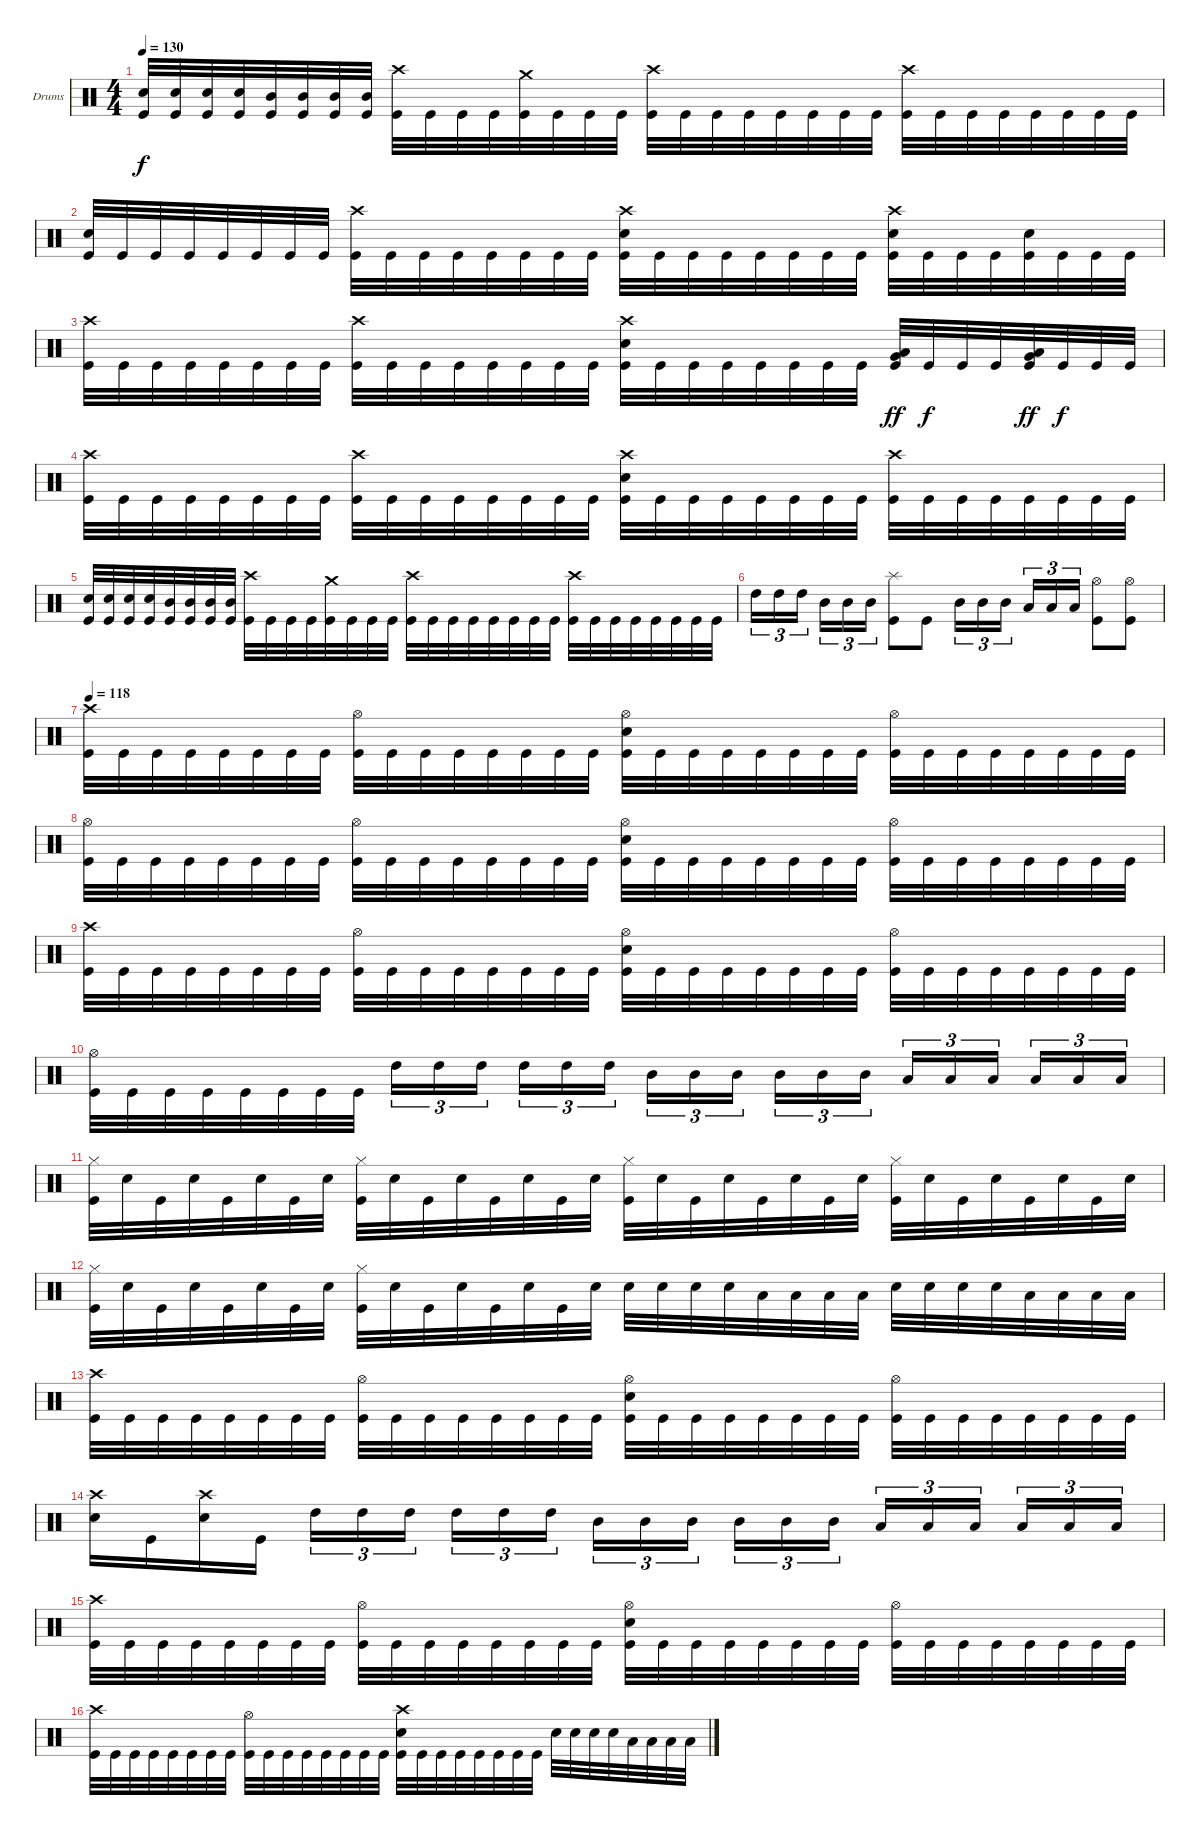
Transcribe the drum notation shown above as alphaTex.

\defaultSystemsLayout 4
\bracketExtendMode groupsimilarinstruments
\firstSystemTrackNameOrientation horizontal
\otherSystemsTrackNameOrientation horizontal
\track ("Trey Williams" "Drums") {instrument percussion}
\staff {score}
\articulation defaults
\ts (4 4)
\tempo 130
\clef neutral
\ks c
("Kick (hit)" "Snare (hit) 2").32{dy f} ("Kick (hit)" "Snare (hit) 2").32 ("Kick (hit)" "Snare (hit) 2").32 ("Kick (hit)" "Snare (hit) 2").32 ("Kick (hit)" "Mid Tom (hit)").32 ("Kick (hit)" "Mid Tom (hit)").32 ("Kick (hit)" "Mid Tom (hit)").32 ("Kick (hit)" "Mid Tom (hit)").32 ("Kick (hit)" "Crash high (hit)").32 "Kick (hit)".32 "Kick (hit)".32 "Kick (hit)".32 ("Kick (hit)" "Crash medium (hit)").32 "Kick (hit)".32 "Kick (hit)".32 "Kick (hit)".32 ("Kick (hit)" "Crash high (hit)").32 "Kick (hit)".32 "Kick (hit)".32 "Kick (hit)".32 "Kick (hit)".32 "Kick (hit)".32 "Kick (hit)".32 "Kick (hit)".32 ("Kick (hit)" "Crash high (hit)").32 "Kick (hit)".32 "Kick (hit)".32 "Kick (hit)".32 "Kick (hit)".32 "Kick (hit)".32 "Kick (hit)".32 "Kick (hit)".32 |
("Kick (hit)" "Snare (hit) 2").32 "Kick (hit)".32 "Kick (hit)".32 "Kick (hit)".32 "Kick (hit)".32 "Kick (hit)".32 "Kick (hit)".32 "Kick (hit)".32 ("Kick (hit)" "Crash high (hit)").32 "Kick (hit)".32 "Kick (hit)".32 "Kick (hit)".32 "Kick (hit)".32 "Kick (hit)".32 "Kick (hit)".32 "Kick (hit)".32 ("Kick (hit)" "Snare (hit) 2" "Crash high (hit)").32 "Kick (hit)".32 "Kick (hit)".32 "Kick (hit)".32 "Kick (hit)".32 "Kick (hit)".32 "Kick (hit)".32 "Kick (hit)".32 ("Kick (hit)" "Crash high (hit)" "Snare (hit) 2").32 "Kick (hit)".32 "Kick (hit)".32 "Kick (hit)".32 ("Kick (hit)" "Snare (hit) 2").32 "Kick (hit)".32 "Kick (hit)".32 "Kick (hit)".32 |
("Kick (hit)" "Crash high (hit)").32 "Kick (hit)".32 "Kick (hit)".32 "Kick (hit)".32 "Kick (hit)".32 "Kick (hit)".32 "Kick (hit)".32 "Kick (hit)".32 ("Kick (hit)" "Crash high (hit)").32 "Kick (hit)".32 "Kick (hit)".32 "Kick (hit)".32 "Kick (hit)".32 "Kick (hit)".32 "Kick (hit)".32 "Kick (hit)".32 ("Kick (hit)" "Snare (hit) 2" "Crash high (hit)").32 "Kick (hit)".32 "Kick (hit)".32 "Kick (hit)".32 "Kick (hit)".32 "Kick (hit)".32 "Kick (hit)".32 "Kick (hit)".32 ("Kick (hit)" "Very Low Tom (hit)" "Low Tom (hit)").32{dy ff} "Kick (hit)".32{dy f} "Kick (hit)".32 "Kick (hit)".32 ("Kick (hit)" "Very Low Tom (hit)" "Low Tom (hit)").32{dy ff} "Kick (hit)".32{dy f} "Kick (hit)".32 "Kick (hit)".32 |
("Kick (hit)" "Crash high (hit)").32 "Kick (hit)".32 "Kick (hit)".32 "Kick (hit)".32 "Kick (hit)".32 "Kick (hit)".32 "Kick (hit)".32 "Kick (hit)".32 ("Kick (hit)" "Crash high (hit)").32 "Kick (hit)".32 "Kick (hit)".32 "Kick (hit)".32 "Kick (hit)".32 "Kick (hit)".32 "Kick (hit)".32 "Kick (hit)".32 ("Kick (hit)" "Crash high (hit)" "Snare (hit) 2").32 "Kick (hit)".32 "Kick (hit)".32 "Kick (hit)".32 "Kick (hit)".32 "Kick (hit)".32 "Kick (hit)".32 "Kick (hit)".32 ("Kick (hit)" "Crash high (hit)").32 "Kick (hit)".32 "Kick (hit)".32 "Kick (hit)".32 "Kick (hit)".32 "Kick (hit)".32 "Kick (hit)".32 "Kick (hit)".32 |
("Kick (hit)" "Snare (hit) 2").32 ("Kick (hit)" "Snare (hit) 2").32 ("Kick (hit)" "Snare (hit) 2").32 ("Kick (hit)" "Snare (hit) 2").32 ("Kick (hit)" "Mid Tom (hit)").32 ("Kick (hit)" "Mid Tom (hit)").32 ("Kick (hit)" "Mid Tom (hit)").32 ("Kick (hit)" "Mid Tom (hit)").32 ("Kick (hit)" "Crash high (hit)").32 "Kick (hit)".32 "Kick (hit)".32 "Kick (hit)".32 ("Kick (hit)" "Crash medium (hit)").32 "Kick (hit)".32 "Kick (hit)".32 "Kick (hit)".32 ("Kick (hit)" "Crash high (hit)").32 "Kick (hit)".32 "Kick (hit)".32 "Kick (hit)".32 "Kick (hit)".32 "Kick (hit)".32 "Kick (hit)".32 "Kick (hit)".32 ("Kick (hit)" "Crash high (hit)").32 "Kick (hit)".32 "Kick (hit)".32 "Kick (hit)".32 "Kick (hit)".32 "Kick (hit)".32 "Kick (hit)".32 "Kick (hit)".32 |
"High Tom (hit)".16{tu (3 2)} "High Tom (hit)".16{tu (3 2)} "High Tom (hit)".16{tu (3 2)} "Mid Tom (hit)".16{tu (3 2)} "Mid Tom (hit)".16{tu (3 2)} "Mid Tom (hit)".16{tu (3 2)} ("Kick (hit)" "Splash (hit)").8 "Kick (hit)".8 "Mid Tom (hit)".16{tu (3 2)} "Mid Tom (hit)".16{tu (3 2)} "Mid Tom (hit)".16{tu (3 2)} "Low Tom (hit)".16{tu (3 2)} "Low Tom (hit)".16{tu (3 2)} "Low Tom (hit)".16{tu (3 2)} ("Kick (hit)" "Hi-Hat (open)").8 ("Kick (hit)" "Hi-Hat (open)").8 |
\tempo 118
("Kick (hit)" "Crash high (hit)").32 "Kick (hit)".32 "Kick (hit)".32 "Kick (hit)".32 "Kick (hit)".32 "Kick (hit)".32 "Kick (hit)".32 "Kick (hit)".32 ("Kick (hit)" "Hi-Hat (open)").32 "Kick (hit)".32 "Kick (hit)".32 "Kick (hit)".32 "Kick (hit)".32 "Kick (hit)".32 "Kick (hit)".32 "Kick (hit)".32 ("Kick (hit)" "Hi-Hat (open)" "Snare (hit) 2").32 "Kick (hit)".32 "Kick (hit)".32 "Kick (hit)".32 "Kick (hit)".32 "Kick (hit)".32 "Kick (hit)".32 "Kick (hit)".32 ("Kick (hit)" "Hi-Hat (open)").32 "Kick (hit)".32 "Kick (hit)".32 "Kick (hit)".32 "Kick (hit)".32 "Kick (hit)".32 "Kick (hit)".32 "Kick (hit)".32 |
("Kick (hit)" "Hi-Hat (open)").32 "Kick (hit)".32 "Kick (hit)".32 "Kick (hit)".32 "Kick (hit)".32 "Kick (hit)".32 "Kick (hit)".32 "Kick (hit)".32 ("Kick (hit)" "Hi-Hat (open)").32 "Kick (hit)".32 "Kick (hit)".32 "Kick (hit)".32 "Kick (hit)".32 "Kick (hit)".32 "Kick (hit)".32 "Kick (hit)".32 ("Kick (hit)" "Hi-Hat (open)" "Snare (hit) 2").32 "Kick (hit)".32 "Kick (hit)".32 "Kick (hit)".32 "Kick (hit)".32 "Kick (hit)".32 "Kick (hit)".32 "Kick (hit)".32 ("Kick (hit)" "Hi-Hat (open)").32 "Kick (hit)".32 "Kick (hit)".32 "Kick (hit)".32 "Kick (hit)".32 "Kick (hit)".32 "Kick (hit)".32 "Kick (hit)".32 |
("Kick (hit)" "Crash high (hit)").32 "Kick (hit)".32 "Kick (hit)".32 "Kick (hit)".32 "Kick (hit)".32 "Kick (hit)".32 "Kick (hit)".32 "Kick (hit)".32 ("Kick (hit)" "Hi-Hat (open)").32 "Kick (hit)".32 "Kick (hit)".32 "Kick (hit)".32 "Kick (hit)".32 "Kick (hit)".32 "Kick (hit)".32 "Kick (hit)".32 ("Kick (hit)" "Hi-Hat (open)" "Snare (hit) 2").32 "Kick (hit)".32 "Kick (hit)".32 "Kick (hit)".32 "Kick (hit)".32 "Kick (hit)".32 "Kick (hit)".32 "Kick (hit)".32 ("Kick (hit)" "Hi-Hat (open)").32 "Kick (hit)".32 "Kick (hit)".32 "Kick (hit)".32 "Kick (hit)".32 "Kick (hit)".32 "Kick (hit)".32 "Kick (hit)".32 |
("Kick (hit)" "Hi-Hat (open)").32 "Kick (hit)".32 "Kick (hit)".32 "Kick (hit)".32 "Kick (hit)".32 "Kick (hit)".32 "Kick (hit)".32 "Kick (hit)".32 "High Tom (hit)".16{tu (3 2)} "High Tom (hit)".16{tu (3 2)} "High Tom (hit)".16{tu (3 2)} "High Tom (hit)".16{tu (3 2)} "High Tom (hit)".16{tu (3 2)} "High Tom (hit)".16{tu (3 2)} "Mid Tom (hit)".16{tu (3 2)} "Mid Tom (hit)".16{tu (3 2)} "Mid Tom (hit)".16{tu (3 2)} "Mid Tom (hit)".16{tu (3 2)} "Mid Tom (hit)".16{tu (3 2)} "Mid Tom (hit)".16{tu (3 2)} "Low Tom (hit)".16{tu (3 2)} "Low Tom (hit)".16{tu (3 2)} "Low Tom (hit)".16{tu (3 2)} "Low Tom (hit)".16{tu (3 2)} "Low Tom (hit)".16{tu (3 2)} "Low Tom (hit)".16{tu (3 2)} |
("Kick (hit)" "Hi-Hat (closed)").32 "Snare (hit) 2".32 "Kick (hit)".32 "Snare (hit) 2".32 "Kick (hit)".32 "Snare (hit) 2".32 "Kick (hit)".32 "Snare (hit) 2".32 ("Kick (hit)" "Hi-Hat (closed)").32 "Snare (hit) 2".32 "Kick (hit)".32 "Snare (hit) 2".32 "Kick (hit)".32 "Snare (hit) 2".32 "Kick (hit)".32 "Snare (hit) 2".32 ("Kick (hit)" "Hi-Hat (closed)").32 "Snare (hit) 2".32 "Kick (hit)".32 "Snare (hit) 2".32 "Kick (hit)".32 "Snare (hit) 2".32 "Kick (hit)".32 "Snare (hit) 2".32 ("Kick (hit)" "Hi-Hat (closed)").32 "Snare (hit) 2".32 "Kick (hit)".32 "Snare (hit) 2".32 "Kick (hit)".32 "Snare (hit) 2".32 "Kick (hit)".32 "Snare (hit) 2".32 |
("Kick (hit)" "Hi-Hat (closed)").32 "Snare (hit) 2".32 "Kick (hit)".32 "Snare (hit) 2".32 "Kick (hit)".32 "Snare (hit) 2".32 "Kick (hit)".32 "Snare (hit) 2".32 ("Kick (hit)" "Hi-Hat (closed)").32 "Snare (hit) 2".32 "Kick (hit)".32 "Snare (hit) 2".32 "Kick (hit)".32 "Snare (hit) 2".32 "Kick (hit)".32 "Snare (hit) 2".32 "Snare (hit) 2".32 "Snare (hit) 2".32 "Snare (hit) 2".32 "Snare (hit) 2".32 "Low Tom (hit)".32 "Low Tom (hit)".32 "Low Tom (hit)".32 "Low Tom (hit)".32 "Snare (hit) 2".32 "Snare (hit) 2".32 "Snare (hit) 2".32 "Snare (hit) 2".32 "Low Tom (hit)".32 "Low Tom (hit)".32 "Low Tom (hit)".32 "Low Tom (hit)".32 |
("Kick (hit)" "Crash high (hit)").32 "Kick (hit)".32 "Kick (hit)".32 "Kick (hit)".32 "Kick (hit)".32 "Kick (hit)".32 "Kick (hit)".32 "Kick (hit)".32 ("Kick (hit)" "Hi-Hat (open)").32 "Kick (hit)".32 "Kick (hit)".32 "Kick (hit)".32 "Kick (hit)".32 "Kick (hit)".32 "Kick (hit)".32 "Kick (hit)".32 ("Kick (hit)" "Hi-Hat (open)" "Snare (hit) 2").32 "Kick (hit)".32 "Kick (hit)".32 "Kick (hit)".32 "Kick (hit)".32 "Kick (hit)".32 "Kick (hit)".32 "Kick (hit)".32 ("Kick (hit)" "Hi-Hat (open)").32 "Kick (hit)".32 "Kick (hit)".32 "Kick (hit)".32 "Kick (hit)".32 "Kick (hit)".32 "Kick (hit)".32 "Kick (hit)".32 |
("Snare (hit) 2" "Crash high (hit)").16 "Kick (hit)".16 ("Snare (hit) 2" "Crash high (hit)").16 "Kick (hit)".16 "High Tom (hit)".16{tu (3 2)} "High Tom (hit)".16{tu (3 2)} "High Tom (hit)".16{tu (3 2)} "High Tom (hit)".16{tu (3 2)} "High Tom (hit)".16{tu (3 2)} "High Tom (hit)".16{tu (3 2)} "Mid Tom (hit)".16{tu (3 2)} "Mid Tom (hit)".16{tu (3 2)} "Mid Tom (hit)".16{tu (3 2)} "Mid Tom (hit)".16{tu (3 2)} "Mid Tom (hit)".16{tu (3 2)} "Mid Tom (hit)".16{tu (3 2)} "Low Tom (hit)".16{tu (3 2)} "Low Tom (hit)".16{tu (3 2)} "Low Tom (hit)".16{tu (3 2)} "Low Tom (hit)".16{tu (3 2)} "Low Tom (hit)".16{tu (3 2)} "Low Tom (hit)".16{tu (3 2)} |
("Kick (hit)" "Crash high (hit)").32 "Kick (hit)".32 "Kick (hit)".32 "Kick (hit)".32 "Kick (hit)".32 "Kick (hit)".32 "Kick (hit)".32 "Kick (hit)".32 ("Kick (hit)" "Hi-Hat (open)").32 "Kick (hit)".32 "Kick (hit)".32 "Kick (hit)".32 "Kick (hit)".32 "Kick (hit)".32 "Kick (hit)".32 "Kick (hit)".32 ("Kick (hit)" "Hi-Hat (open)" "Snare (hit) 2").32 "Kick (hit)".32 "Kick (hit)".32 "Kick (hit)".32 "Kick (hit)".32 "Kick (hit)".32 "Kick (hit)".32 "Kick (hit)".32 ("Kick (hit)" "Hi-Hat (open)").32 "Kick (hit)".32 "Kick (hit)".32 "Kick (hit)".32 "Kick (hit)".32 "Kick (hit)".32 "Kick (hit)".32 "Kick (hit)".32 |
("Kick (hit)" "Crash high (hit)").32 "Kick (hit)".32 "Kick (hit)".32 "Kick (hit)".32 "Kick (hit)".32 "Kick (hit)".32 "Kick (hit)".32 "Kick (hit)".32 ("Kick (hit)" "Hi-Hat (open)").32 "Kick (hit)".32 "Kick (hit)".32 "Kick (hit)".32 "Kick (hit)".32 "Kick (hit)".32 "Kick (hit)".32 "Kick (hit)".32 ("Kick (hit)" "Snare (hit) 2" "Crash high (hit)").32 "Kick (hit)".32 "Kick (hit)".32 "Kick (hit)".32 "Kick (hit)".32 "Kick (hit)".32 "Kick (hit)".32 "Kick (hit)".32 "Snare (hit) 2".32 "Snare (hit) 2".32 "Snare (hit) 2".32 "Snare (hit) 2".32 "Low Tom (hit)".32 "Low Tom (hit)".32 "Low Tom (hit)".32 "Low Tom (hit)".32
